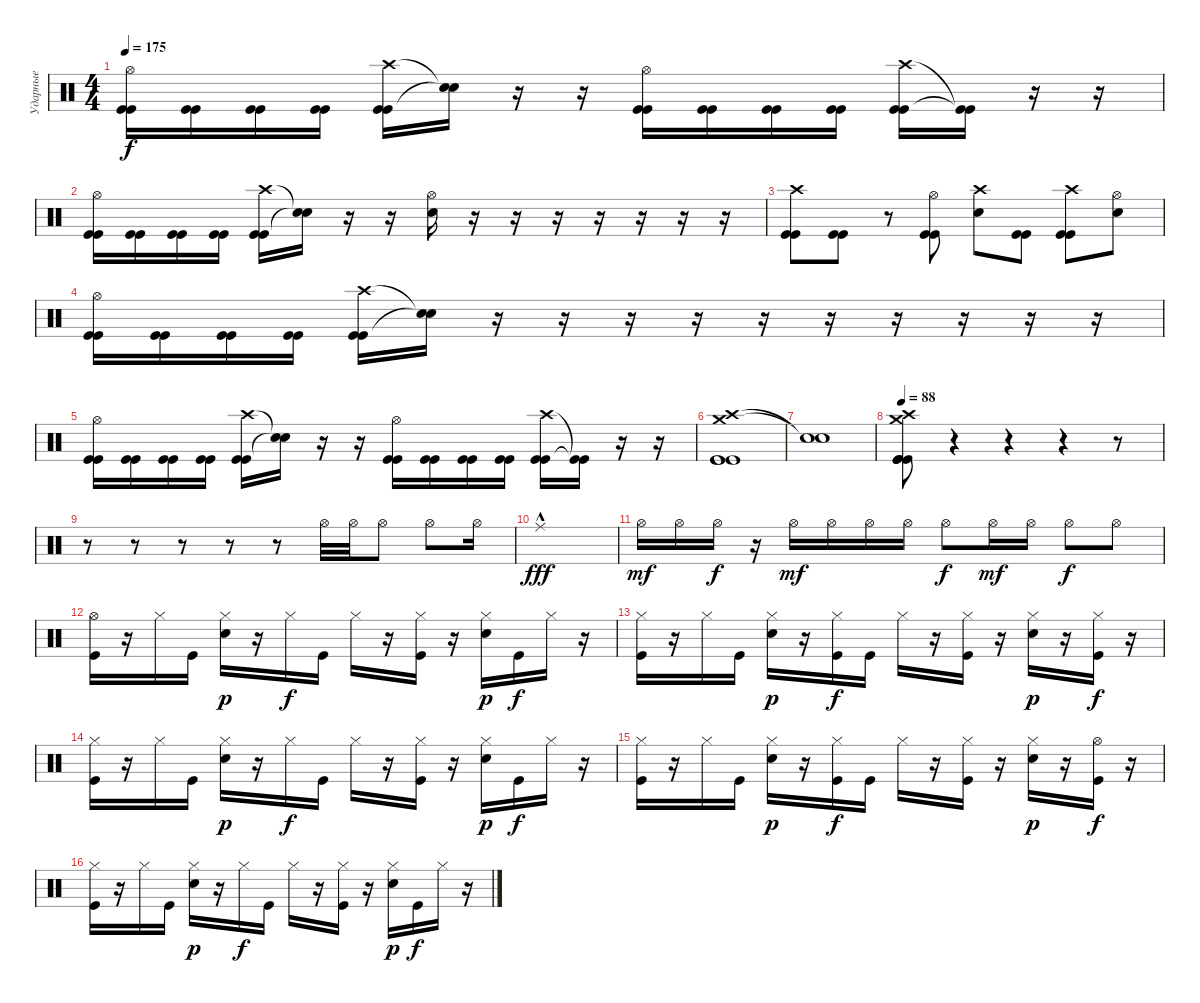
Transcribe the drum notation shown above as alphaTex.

\track ("Ударные" "Ударные") {instrument percussion}
\staff {score}
\articulation defaults
\ts (4 4)
\tempo 175
\clef neutral
\ks c
("Hi-Hat (open)" "Kick (hit)" "Kick (hit)").16{dy f} ("Kick (hit)" "Kick (hit)").16 ("Kick (hit)" "Kick (hit)").16 ("Kick (hit)" "Kick (hit)").16 ("Crash high (hit)" "Kick (hit)" "Kick (hit)").16 ("Snare (hit)"{t} "Snare (hit)"{t}).16 r.16 r.16 ("Hi-Hat (open)" "Kick (hit)" "Kick (hit)").16 ("Kick (hit)" "Kick (hit)").16 ("Kick (hit)" "Kick (hit)").16 ("Kick (hit)" "Kick (hit)").16 ("Crash high (hit)" "Kick (hit)" "Kick (hit)").16 ("Kick (hit)"{t} "Kick (hit)"{t}).16 r.16 r.16 |
("Hi-Hat (open)" "Kick (hit)" "Kick (hit)").16 ("Kick (hit)" "Kick (hit)").16 ("Kick (hit)" "Kick (hit)").16 ("Kick (hit)" "Kick (hit)").16 ("Crash high (hit)" "Kick (hit)" "Kick (hit)").16 ("Snare (hit)"{t} "Snare (hit)"{t}).16 r.16 r.16 ("Hi-Hat (open)" "Snare (hit) 2").16 r.16 r.16 r.16 r.16 r.16 r.16 r.16 |
("Crash high (hit)" "Kick (hit)" "Kick (hit)").8 ("Kick (hit)" "Kick (hit)").8 r.8 ("Hi-Hat (open)" "Kick (hit)" "Kick (hit)").8 ("Crash high (hit)" "Snare (hit) 2").8 ("Kick (hit)" "Kick (hit)").8 ("Crash high (hit)" "Kick (hit)" "Kick (hit)").8 ("Hi-Hat (open)" "Snare (hit) 2").8 |
("Hi-Hat (open)" "Kick (hit)" "Kick (hit)").16 ("Kick (hit)" "Kick (hit)").16 ("Kick (hit)" "Kick (hit)").16 ("Kick (hit)" "Kick (hit)").16 ("Crash high (hit)" "Kick (hit)" "Kick (hit)").16 ("Snare (hit)"{t} "Snare (hit)"{t}).16 r.16 r.16 r.16 r.16 r.16 r.16 r.16 r.16 r.16 r.16 |
("Hi-Hat (open)" "Kick (hit)" "Kick (hit)").16 ("Kick (hit)" "Kick (hit)").16 ("Kick (hit)" "Kick (hit)").16 ("Kick (hit)" "Kick (hit)").16 ("Crash high (hit)" "Kick (hit)" "Kick (hit)").16 ("Snare (hit)"{t} "Snare (hit)"{t}).16 r.16 r.16 ("Hi-Hat (open)" "Kick (hit)" "Kick (hit)").16 ("Kick (hit)" "Kick (hit)").16 ("Kick (hit)" "Kick (hit)").16 ("Kick (hit)" "Kick (hit)").16 ("Crash high (hit)" "Kick (hit)" "Kick (hit)").16 ("Kick (hit)"{t} "Kick (hit)"{t}).16 r.16 r.16 |
("Crash high (hit)" "Crash medium (hit)" "Kick (hit)" "Kick (hit)" "Kick (hit)").1 |
("Snare (hit)"{t} "Snare (hit)"{t}).1 |
\tempo 88
("Crash high (hit)" "Crash medium (hit)" "Kick (hit)" "Kick (hit)" "Kick (hit)").8 r.4 r.4 r.4 r.8 |
r.8 r.8 r.8 r.8 r.8 "Hi-Hat (open)".32 "Hi-Hat (open)".32 "Hi-Hat (open)".8 "Hi-Hat (open)".8 "Hi-Hat (open)".16 |
"Ride (middle)"{hac}.1{dy fff} |
"Hi-Hat (open)".16{dy mf} "Hi-Hat (open)".16 "Hi-Hat (open)".16{dy f} r.16 "Hi-Hat (open)".16{dy mf} "Hi-Hat (open)".16 "Hi-Hat (open)".16 "Hi-Hat (open)".16 "Hi-Hat (open)".8{dy f} "Hi-Hat (open)".16{dy mf} "Hi-Hat (open)".16 "Hi-Hat (open)".8{dy f} "Hi-Hat (open)".8 |
("Hi-Hat (open)" "Kick (hit)").16 r.16 "Hi-Hat (closed)".16 "Kick (hit)".16 ("Hi-Hat (closed)" "Snare (hit) 2").16{dy p} r.16 "Hi-Hat (closed)".16{dy f} "Kick (hit)".16 "Hi-Hat (closed)".16 r.16 ("Hi-Hat (closed)" "Kick (hit)").16 r.16 ("Hi-Hat (closed)" "Snare (hit) 2").16{dy p} "Kick (hit)".16{dy f} "Hi-Hat (closed)".16 r.16 |
("Hi-Hat (closed)" "Kick (hit)").16 r.16 "Hi-Hat (closed)".16 "Kick (hit)".16 ("Hi-Hat (closed)" "Snare (hit) 2").16{dy p} r.16 ("Hi-Hat (closed)" "Kick (hit)").16{dy f} "Kick (hit)".16 "Hi-Hat (closed)".16 r.16 ("Hi-Hat (closed)" "Kick (hit)").16 r.16 ("Hi-Hat (closed)" "Snare (hit) 2").16{dy p} r.16 ("Hi-Hat (closed)" "Kick (hit)").16{dy f} r.16 |
("Hi-Hat (closed)" "Kick (hit)").16 r.16 "Hi-Hat (closed)".16 "Kick (hit)".16 ("Hi-Hat (closed)" "Snare (hit) 2").16{dy p} r.16 "Hi-Hat (closed)".16{dy f} "Kick (hit)".16 "Hi-Hat (closed)".16 r.16 ("Hi-Hat (closed)" "Kick (hit)").16 r.16 ("Hi-Hat (closed)" "Snare (hit) 2").16{dy p} "Kick (hit)".16{dy f} "Hi-Hat (closed)".16 r.16 |
("Hi-Hat (closed)" "Kick (hit)").16 r.16 "Hi-Hat (closed)".16 "Kick (hit)".16 ("Hi-Hat (closed)" "Snare (hit) 2").16{dy p} r.16 ("Hi-Hat (closed)" "Kick (hit)").16{dy f} "Kick (hit)".16 "Hi-Hat (closed)".16 r.16 ("Hi-Hat (closed)" "Kick (hit)").16 r.16 ("Hi-Hat (closed)" "Snare (hit) 2").16{dy p} r.16 ("Hi-Hat (open)" "Kick (hit)").16{dy f} r.16 |
("Hi-Hat (closed)" "Kick (hit)").16 r.16 "Hi-Hat (closed)".16 "Kick (hit)".16 ("Hi-Hat (closed)" "Snare (hit) 2").16{dy p} r.16 "Hi-Hat (closed)".16{dy f} "Kick (hit)".16 "Hi-Hat (closed)".16 r.16 ("Hi-Hat (closed)" "Kick (hit)").16 r.16 ("Hi-Hat (closed)" "Snare (hit) 2").16{dy p} "Kick (hit)".16{dy f} "Hi-Hat (closed)".16 r.16
